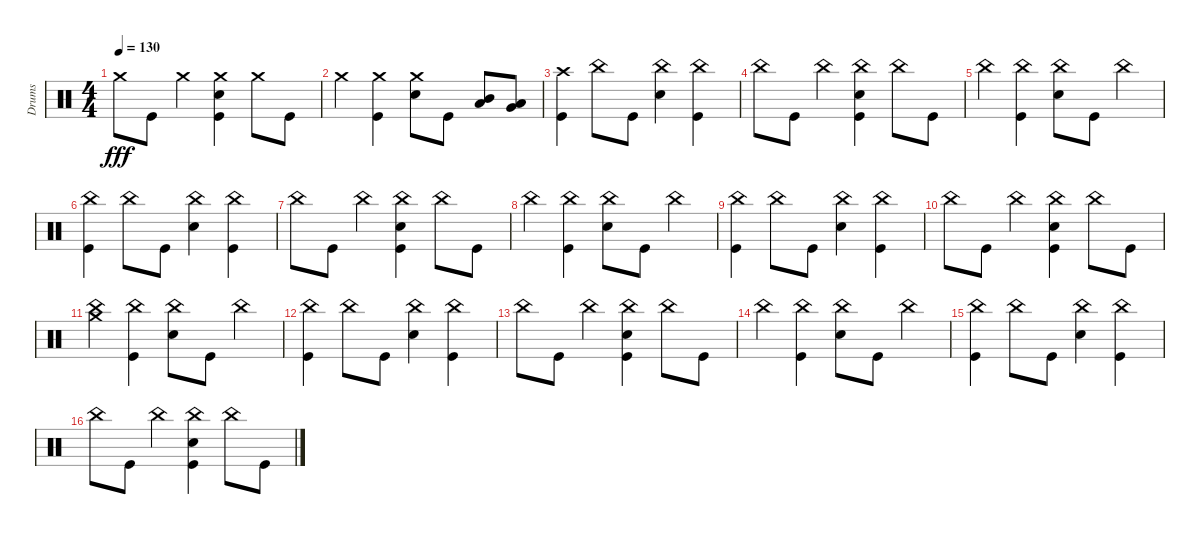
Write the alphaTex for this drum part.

\track ("Drums" "Drums") {instrument percussion}
\staff {score}
\articulation defaults
\ts (4 4)
\tempo 130
\clef neutral
\ks c "Crash medium (hit)".8{dy fff} "Kick (hit)".8 "Crash medium (hit)".4
("Crash medium (hit)" "Snare (hit) 2" "Kick (hit)").4 "Crash medium (hit)".8 "Kick (hit)".8 |
"Crash medium (hit)".4 ("Crash medium (hit)" "Kick (hit)").4 ("Crash medium (hit)" "Snare (hit) 2").8 "Kick (hit)".8 ("Mid Tom (hit)" "Low Tom (hit)").8 ("Low Tom (hit)" "Very Low Tom (hit)").8 |
("Crash high (hit)" "Kick (hit)").4 "China (hit)".8 "Kick (hit)".8 ("China (hit)" "Snare (hit) 2").4 ("China (hit)" "Kick (hit)").4 |
"China (hit)".8 "Kick (hit)".8 "China (hit)".4 ("China (hit)" "Snare (hit) 2" "Kick (hit)").4 "China (hit)".8 "Kick (hit)".8 |
"China (hit)".4 ("China (hit)" "Kick (hit)").4 ("China (hit)" "Snare (hit) 2").8 "Kick (hit)".8 "China (hit)".4 |
("China (hit)" "Kick (hit)").4 "China (hit)".8 "Kick (hit)".8 ("China (hit)" "Snare (hit) 2").4 ("China (hit)" "Kick (hit)").4 |
"China (hit)".8 "Kick (hit)".8 "China (hit)".4 ("China (hit)" "Snare (hit) 2" "Kick (hit)").4 "China (hit)".8 "Kick (hit)".8 |
"China (hit)".4 ("China (hit)" "Kick (hit)").4 ("China (hit)" "Snare (hit) 2").8 "Kick (hit)".8 "China (hit)".4 |
("China (hit)" "Kick (hit)").4 "China (hit)".8 "Kick (hit)".8 ("China (hit)" "Snare (hit) 2").4 ("China (hit)" "Kick (hit)").4 |
"China (hit)".8 "Kick (hit)".8 "China (hit)".4 ("China (hit)" "Snare (hit) 2" "Kick (hit)").4 "China (hit)".8 "Kick (hit)".8 |
("Crash medium (hit)" "China (hit)").4 ("China (hit)" "Kick (hit)").4 ("China (hit)" "Snare (hit) 2").8 "Kick (hit)".8 "China (hit)".4 |
("China (hit)" "Kick (hit)").4 "China (hit)".8 "Kick (hit)".8 ("China (hit)" "Snare (hit) 2").4 ("China (hit)" "Kick (hit)").4 |
"China (hit)".8 "Kick (hit)".8 "China (hit)".4 ("China (hit)" "Snare (hit) 2" "Kick (hit)").4 "China (hit)".8 "Kick (hit)".8 |
"China (hit)".4 ("China (hit)" "Kick (hit)").4 ("China (hit)" "Snare (hit) 2").8 "Kick (hit)".8 "China (hit)".4 |
("China (hit)" "Kick (hit)").4 "China (hit)".8 "Kick (hit)".8 ("China (hit)" "Snare (hit) 2").4 ("China (hit)" "Kick (hit)").4 |
"China (hit)".8 "Kick (hit)".8 "China (hit)".4 ("China (hit)" "Snare (hit) 2" "Kick (hit)").4 "China (hit)".8 "Kick (hit)".8
